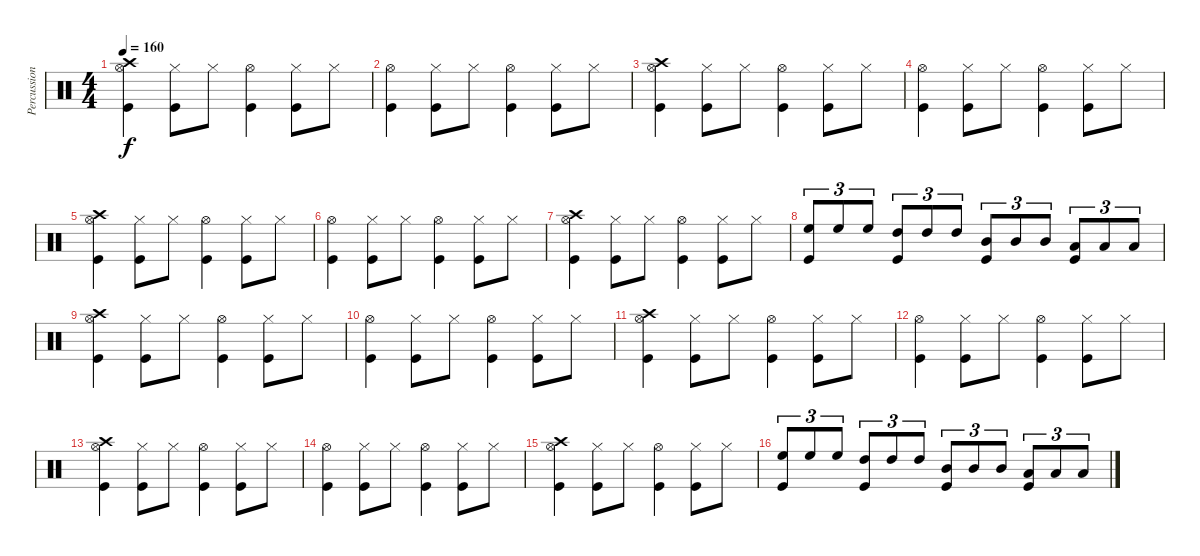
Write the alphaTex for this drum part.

\track ("Percussion" "Percussion") {instrument percussion}
\staff {score}
\articulation defaults
\ts (4 4)
\tempo 160
\clef neutral
\ks c
("Hi-Hat (open)" "Crash high (hit)" "Kick (hit)").4{dy f} ("Hi-Hat (closed)" "Kick (hit)").8 "Hi-Hat (closed)".8 ("Hi-Hat (open)" "Kick (hit)").4 ("Hi-Hat (closed)" "Kick (hit)").8 "Hi-Hat (closed)".8 |
("Hi-Hat (open)" "Kick (hit)").4 ("Hi-Hat (closed)" "Kick (hit)").8 "Hi-Hat (closed)".8 ("Hi-Hat (open)" "Kick (hit)").4 ("Hi-Hat (closed)" "Kick (hit)").8 "Hi-Hat (closed)".8 |
("Hi-Hat (open)" "Crash high (hit)" "Kick (hit)").4 ("Hi-Hat (closed)" "Kick (hit)").8 "Hi-Hat (closed)".8 ("Hi-Hat (open)" "Kick (hit)").4 ("Hi-Hat (closed)" "Kick (hit)").8 "Hi-Hat (closed)".8 |
("Hi-Hat (open)" "Kick (hit)").4 ("Hi-Hat (closed)" "Kick (hit)").8 "Hi-Hat (closed)".8 ("Hi-Hat (open)" "Kick (hit)").4 ("Hi-Hat (closed)" "Kick (hit)").8 "Hi-Hat (closed)".8 |
("Hi-Hat (open)" "Crash high (hit)" "Kick (hit)").4 ("Hi-Hat (closed)" "Kick (hit)").8 "Hi-Hat (closed)".8 ("Hi-Hat (open)" "Kick (hit)").4 ("Hi-Hat (closed)" "Kick (hit)").8 "Hi-Hat (closed)".8 |
("Hi-Hat (open)" "Kick (hit)").4 ("Hi-Hat (closed)" "Kick (hit)").8 "Hi-Hat (closed)".8 ("Hi-Hat (open)" "Kick (hit)").4 ("Hi-Hat (closed)" "Kick (hit)").8 "Hi-Hat (closed)".8 |
("Hi-Hat (open)" "Crash high (hit)" "Kick (hit)").4 ("Hi-Hat (closed)" "Kick (hit)").8 "Hi-Hat (closed)".8 ("Hi-Hat (open)" "Kick (hit)").4 ("Hi-Hat (closed)" "Kick (hit)").8 "Hi-Hat (closed)".8 |
("High Floor Tom (hit)" "Kick (hit)").8{tu (3 2)} "High Floor Tom (hit)".8{tu (3 2)} "High Floor Tom (hit)".8{tu (3 2)} ("High Tom (hit)" "Kick (hit)").8{tu (3 2)} "High Tom (hit)".8{tu (3 2)} "High Tom (hit)".8{tu (3 2)} ("Mid Tom (hit)" "Kick (hit)").8{tu (3 2)} "Mid Tom (hit)".8{tu (3 2)} "Mid Tom (hit)".8{tu (3 2)} ("Low Tom (hit)" "Kick (hit)").8{tu (3 2)} "Low Tom (hit)".8{tu (3 2)} "Low Tom (hit)".8{tu (3 2)} |
("Hi-Hat (open)" "Crash high (hit)" "Kick (hit)").4 ("Hi-Hat (closed)" "Kick (hit)").8 "Hi-Hat (closed)".8 ("Hi-Hat (open)" "Kick (hit)").4 ("Hi-Hat (closed)" "Kick (hit)").8 "Hi-Hat (closed)".8 |
("Hi-Hat (open)" "Kick (hit)").4 ("Hi-Hat (closed)" "Kick (hit)").8 "Hi-Hat (closed)".8 ("Hi-Hat (open)" "Kick (hit)").4 ("Hi-Hat (closed)" "Kick (hit)").8 "Hi-Hat (closed)".8 |
("Hi-Hat (open)" "Crash high (hit)" "Kick (hit)").4 ("Hi-Hat (closed)" "Kick (hit)").8 "Hi-Hat (closed)".8 ("Hi-Hat (open)" "Kick (hit)").4 ("Hi-Hat (closed)" "Kick (hit)").8 "Hi-Hat (closed)".8 |
("Hi-Hat (open)" "Kick (hit)").4 ("Hi-Hat (closed)" "Kick (hit)").8 "Hi-Hat (closed)".8 ("Hi-Hat (open)" "Kick (hit)").4 ("Hi-Hat (closed)" "Kick (hit)").8 "Hi-Hat (closed)".8 |
("Hi-Hat (open)" "Crash high (hit)" "Kick (hit)").4 ("Hi-Hat (closed)" "Kick (hit)").8 "Hi-Hat (closed)".8 ("Hi-Hat (open)" "Kick (hit)").4 ("Hi-Hat (closed)" "Kick (hit)").8 "Hi-Hat (closed)".8 |
("Hi-Hat (open)" "Kick (hit)").4 ("Hi-Hat (closed)" "Kick (hit)").8 "Hi-Hat (closed)".8 ("Hi-Hat (open)" "Kick (hit)").4 ("Hi-Hat (closed)" "Kick (hit)").8 "Hi-Hat (closed)".8 |
("Hi-Hat (open)" "Crash high (hit)" "Kick (hit)").4 ("Hi-Hat (closed)" "Kick (hit)").8 "Hi-Hat (closed)".8 ("Hi-Hat (open)" "Kick (hit)").4 ("Hi-Hat (closed)" "Kick (hit)").8 "Hi-Hat (closed)".8 |
("High Floor Tom (hit)" "Kick (hit)").8{tu (3 2)} "High Floor Tom (hit)".8{tu (3 2)} "High Floor Tom (hit)".8{tu (3 2)} ("High Tom (hit)" "Kick (hit)").8{tu (3 2)} "High Tom (hit)".8{tu (3 2)} "High Tom (hit)".8{tu (3 2)} ("Mid Tom (hit)" "Kick (hit)").8{tu (3 2)} "Mid Tom (hit)".8{tu (3 2)} "Mid Tom (hit)".8{tu (3 2)} ("Low Tom (hit)" "Kick (hit)").8{tu (3 2)} "Low Tom (hit)".8{tu (3 2)} "Low Tom (hit)".8{tu (3 2)}
